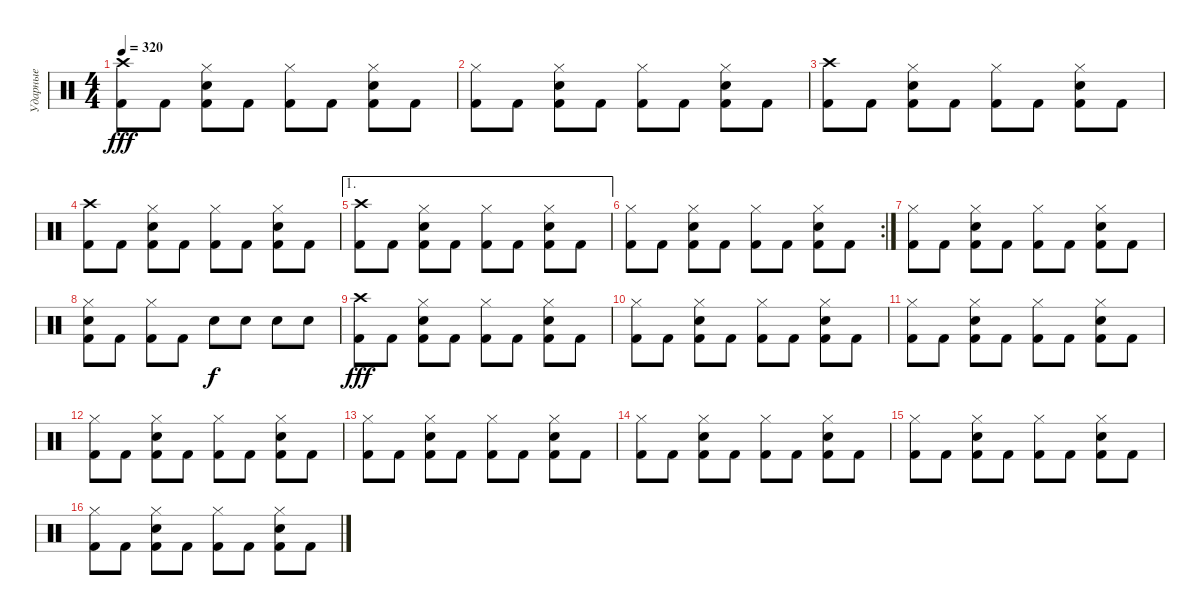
\track ("Ударные" "Ударные") {instrument percussion}
\staff {score}
\articulation defaults
\ts (4 4)
\tempo 320
\clef neutral
\ks c
("Kick (hit) 2" "Crash high (hit)").8{dy fff} "Kick (hit) 2".8 ("Kick (hit) 2" "Snare (hit) 2" "Hi-Hat (closed)").8 "Kick (hit) 2".8 ("Kick (hit) 2" "Hi-Hat (closed)").8 "Kick (hit) 2".8 ("Kick (hit) 2" "Snare (hit) 2" "Hi-Hat (closed)").8 "Kick (hit) 2".8 |
("Kick (hit) 2" "Hi-Hat (closed)").8 "Kick (hit) 2".8 ("Kick (hit) 2" "Snare (hit) 2" "Hi-Hat (closed)").8 "Kick (hit) 2".8 ("Kick (hit) 2" "Hi-Hat (closed)").8 "Kick (hit) 2".8 ("Kick (hit) 2" "Snare (hit) 2" "Hi-Hat (closed)").8 "Kick (hit) 2".8 |
("Kick (hit) 2" "Crash high (hit)").8 "Kick (hit) 2".8 ("Kick (hit) 2" "Snare (hit) 2" "Hi-Hat (closed)").8 "Kick (hit) 2".8 ("Kick (hit) 2" "Hi-Hat (closed)").8 "Kick (hit) 2".8 ("Kick (hit) 2" "Snare (hit) 2" "Hi-Hat (closed)").8 "Kick (hit) 2".8 |
("Kick (hit) 2" "Crash high (hit)").8 "Kick (hit) 2".8 ("Kick (hit) 2" "Snare (hit) 2" "Hi-Hat (closed)").8 "Kick (hit) 2".8 ("Kick (hit) 2" "Hi-Hat (closed)").8 "Kick (hit) 2".8 ("Kick (hit) 2" "Snare (hit) 2" "Hi-Hat (closed)").8 "Kick (hit) 2".8 |
\ae 1
("Kick (hit) 2" "Crash high (hit)").8 "Kick (hit) 2".8 ("Kick (hit) 2" "Snare (hit) 2" "Hi-Hat (closed)").8 "Kick (hit) 2".8 ("Kick (hit) 2" "Hi-Hat (closed)").8 "Kick (hit) 2".8 ("Kick (hit) 2" "Snare (hit) 2" "Hi-Hat (closed)").8 "Kick (hit) 2".8 |
\rc 2
("Kick (hit) 2" "Hi-Hat (closed)").8 "Kick (hit) 2".8 ("Kick (hit) 2" "Snare (hit) 2" "Hi-Hat (closed)").8 "Kick (hit) 2".8 ("Kick (hit) 2" "Hi-Hat (closed)").8 "Kick (hit) 2".8 ("Kick (hit) 2" "Snare (hit) 2" "Hi-Hat (closed)").8 "Kick (hit) 2".8 |
("Kick (hit) 2" "Hi-Hat (closed)").8 "Kick (hit) 2".8 ("Kick (hit) 2" "Snare (hit) 2" "Hi-Hat (closed)").8 "Kick (hit) 2".8 ("Kick (hit) 2" "Hi-Hat (closed)").8 "Kick (hit) 2".8 ("Kick (hit) 2" "Snare (hit) 2" "Hi-Hat (closed)").8 "Kick (hit) 2".8 |
("Kick (hit) 2" "Snare (hit) 2" "Hi-Hat (closed)").8 "Kick (hit) 2".8 ("Kick (hit) 2" "Hi-Hat (closed)").8 "Kick (hit) 2".8 "Snare (hit) 2".8{dy f} "Snare (hit) 2".8 "Snare (hit) 2".8 "Snare (hit) 2".8 |
("Kick (hit) 2" "Crash high (hit)").8{dy fff} "Kick (hit) 2".8 ("Kick (hit) 2" "Snare (hit) 2" "Hi-Hat (closed)").8 "Kick (hit) 2".8 ("Kick (hit) 2" "Hi-Hat (closed)").8 "Kick (hit) 2".8 ("Kick (hit) 2" "Snare (hit) 2" "Hi-Hat (closed)").8 "Kick (hit) 2".8 |
("Kick (hit) 2" "Hi-Hat (closed)").8 "Kick (hit) 2".8 ("Kick (hit) 2" "Snare (hit) 2" "Hi-Hat (closed)").8 "Kick (hit) 2".8 ("Kick (hit) 2" "Hi-Hat (closed)").8 "Kick (hit) 2".8 ("Kick (hit) 2" "Snare (hit) 2" "Hi-Hat (closed)").8 "Kick (hit) 2".8 |
("Kick (hit) 2" "Hi-Hat (closed)").8 "Kick (hit) 2".8 ("Kick (hit) 2" "Snare (hit) 2" "Hi-Hat (closed)").8 "Kick (hit) 2".8 ("Kick (hit) 2" "Hi-Hat (closed)").8 "Kick (hit) 2".8 ("Kick (hit) 2" "Snare (hit) 2" "Hi-Hat (closed)").8 "Kick (hit) 2".8 |
("Kick (hit) 2" "Hi-Hat (closed)").8 "Kick (hit) 2".8 ("Kick (hit) 2" "Snare (hit) 2" "Hi-Hat (closed)").8 "Kick (hit) 2".8 ("Kick (hit) 2" "Hi-Hat (closed)").8 "Kick (hit) 2".8 ("Kick (hit) 2" "Snare (hit) 2" "Hi-Hat (closed)").8 "Kick (hit) 2".8 |
("Kick (hit) 2" "Hi-Hat (closed)").8 "Kick (hit) 2".8 ("Kick (hit) 2" "Snare (hit) 2" "Hi-Hat (closed)").8 "Kick (hit) 2".8 ("Kick (hit) 2" "Hi-Hat (closed)").8 "Kick (hit) 2".8 ("Kick (hit) 2" "Snare (hit) 2" "Hi-Hat (closed)").8 "Kick (hit) 2".8 |
("Kick (hit) 2" "Hi-Hat (closed)").8 "Kick (hit) 2".8 ("Kick (hit) 2" "Snare (hit) 2" "Hi-Hat (closed)").8 "Kick (hit) 2".8 ("Kick (hit) 2" "Hi-Hat (closed)").8 "Kick (hit) 2".8 ("Kick (hit) 2" "Snare (hit) 2" "Hi-Hat (closed)").8 "Kick (hit) 2".8 |
("Kick (hit) 2" "Hi-Hat (closed)").8 "Kick (hit) 2".8 ("Kick (hit) 2" "Snare (hit) 2" "Hi-Hat (closed)").8 "Kick (hit) 2".8 ("Kick (hit) 2" "Hi-Hat (closed)").8 "Kick (hit) 2".8 ("Kick (hit) 2" "Snare (hit) 2" "Hi-Hat (closed)").8 "Kick (hit) 2".8 |
("Kick (hit) 2" "Hi-Hat (closed)").8 "Kick (hit) 2".8 ("Kick (hit) 2" "Snare (hit) 2" "Hi-Hat (closed)").8 "Kick (hit) 2".8 ("Kick (hit) 2" "Hi-Hat (closed)").8 "Kick (hit) 2".8 ("Kick (hit) 2" "Snare (hit) 2" "Hi-Hat (closed)").8 "Kick (hit) 2".8
